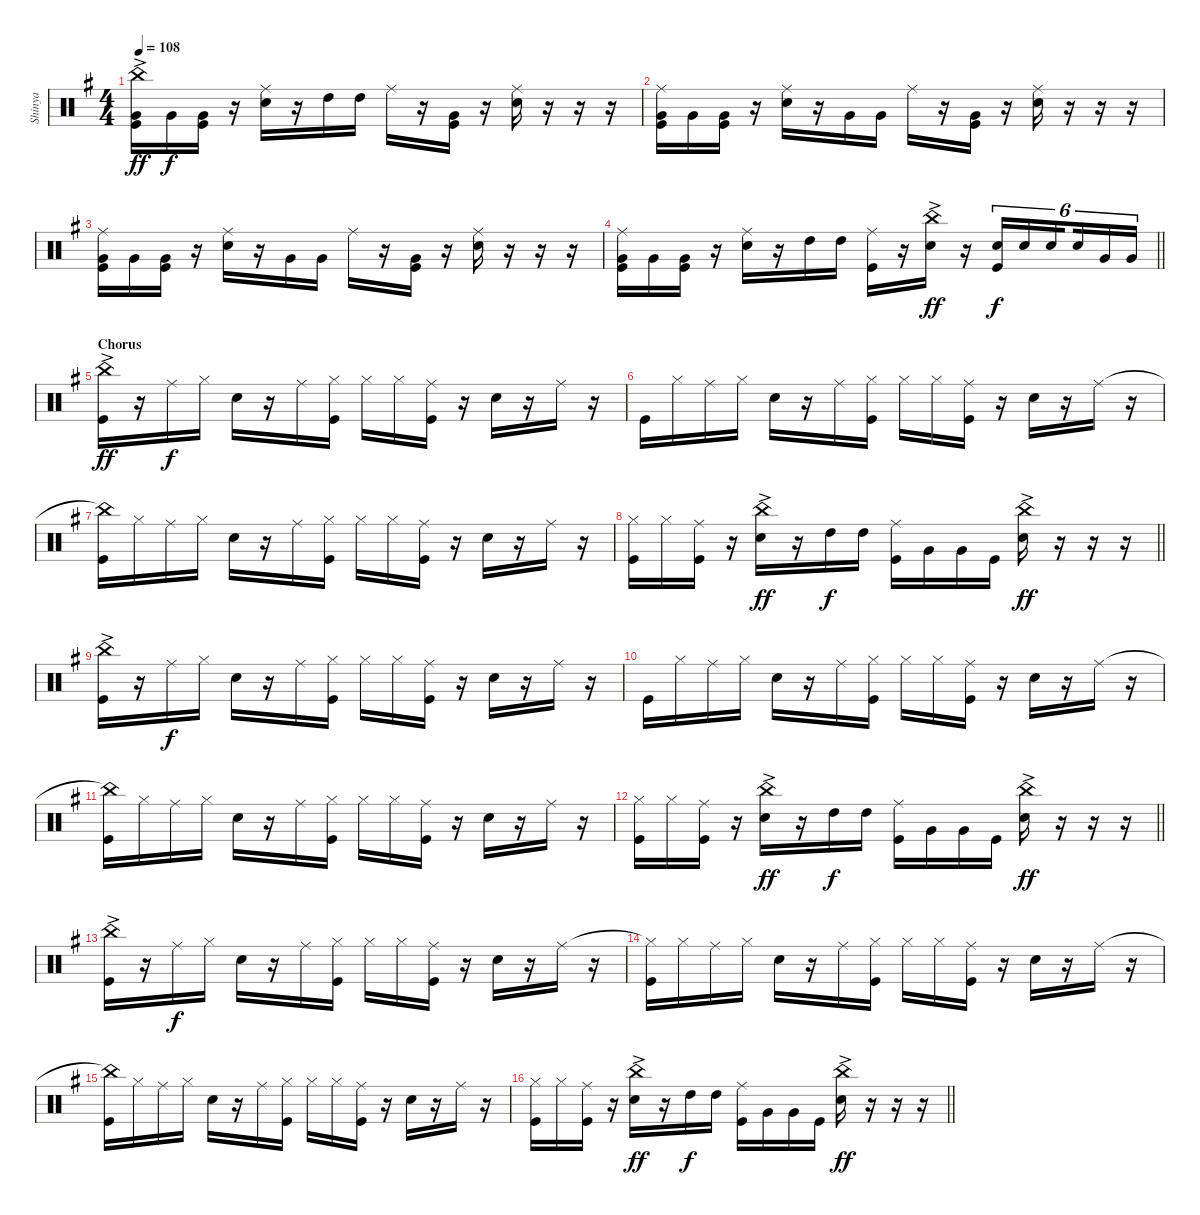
\track ("Shinya" "Shinya") {instrument percussion}
\staff {score}
\articulation defaults
\ts (4 4)
\tempo 108
\clef neutral
\ks g
("China (hit)"{ac} "Very Low Tom (hit)" "Kick (hit)").16{dy ff} "Very Low Tom (hit)".16{dy f} ("Very Low Tom (hit)" "Kick (hit)").16 r.16 ("Ride (middle)" "Electric Snare (hit)").16 r.16 "High Tom (hit)".16 "High Tom (hit)".16 "Ride (middle)".16 r.16 ("Very Low Tom (hit)" "Kick (hit)").16 r.16 ("Ride (middle)" "Electric Snare (hit)").16 r.16 r.16 r.16 |
("Ride (middle)" "Very Low Tom (hit)" "Kick (hit)").16 "Very Low Tom (hit)".16 ("Very Low Tom (hit)" "Kick (hit)").16 r.16 ("Ride (middle)" "Electric Snare (hit)").16 r.16 "Very Low Tom (hit)".16 "Very Low Tom (hit)".16 "Ride (middle)".16 r.16 ("Very Low Tom (hit)" "Kick (hit)").16 r.16 ("Ride (middle)" "Electric Snare (hit)").16 r.16 r.16 r.16 |
("Ride (middle)" "Very Low Tom (hit)" "Kick (hit)").16 "Very Low Tom (hit)".16 ("Very Low Tom (hit)" "Kick (hit)").16 r.16 ("Ride (middle)" "Electric Snare (hit)").16 r.16 "Very Low Tom (hit)".16 "Very Low Tom (hit)".16 "Ride (middle)".16 r.16 ("Very Low Tom (hit)" "Kick (hit)").16 r.16 ("Ride (middle)" "Electric Snare (hit)").16 r.16 r.16 r.16 |
\barLineRight lightlight
("Ride (middle)" "Very Low Tom (hit)" "Kick (hit)").16 "Very Low Tom (hit)".16 ("Very Low Tom (hit)" "Kick (hit)").16 r.16 ("Ride (middle)" "Electric Snare (hit)").16 r.16 "High Tom (hit)".16 "High Tom (hit)".16 ("Ride (middle)" "Kick (hit)").16 r.16 ("China (hit)"{ac} "Electric Snare (hit)").16{dy ff} r.16 ("Electric Snare (hit)" "Kick (hit)").16{tu (6 4) dy f} "Electric Snare (hit)".16{tu (6 4)} "Electric Snare (hit)".16{tu (6 4) beam splitsecondary} "Electric Snare (hit)".16{tu (6 4)} "Very Low Tom (hit)".16{tu (6 4)} "Very Low Tom (hit)".16{tu (6 4)} |
\section ("" "Chorus")
("China (hit)"{ac} "Kick (hit)").16{dy ff} r.16 "Ride (middle)".16{dy f} "Hi-Hat (closed)".16 "Electric Snare (hit)".16 r.16 "Ride (middle)".16 ("Hi-Hat (closed)" "Kick (hit)").16 "Hi-Hat (closed)".16 "Hi-Hat (closed)".16 ("Ride (middle)" "Kick (hit)").16 r.16 "Electric Snare (hit)".16 r.16 "Ride (middle)".16 r.16 |
"Kick (hit)".16 "Hi-Hat (closed)".16 "Ride (middle)".16 "Hi-Hat (closed)".16 "Electric Snare (hit)".16 r.16 "Ride (middle)".16 ("Hi-Hat (closed)" "Kick (hit)").16 "Hi-Hat (closed)".16 "Hi-Hat (closed)".16 ("Ride (middle)" "Kick (hit)").16 r.16 "Electric Snare (hit)".16 r.16 "Ride (middle)".16 r.16 |
("China (hit)"{t} "Kick (hit)").16 "Hi-Hat (closed)".16 "Ride (middle)".16 "Hi-Hat (closed)".16 "Electric Snare (hit)".16 r.16 "Ride (middle)".16 ("Hi-Hat (closed)" "Kick (hit)").16 "Hi-Hat (closed)".16 "Hi-Hat (closed)".16 ("Ride (middle)" "Kick (hit)").16 r.16 "Electric Snare (hit)".16 r.16 "Ride (middle)".16 r.16 |
\barLineRight lightlight
("Hi-Hat (closed)" "Kick (hit)").16 "Hi-Hat (closed)".16 ("Ride (middle)" "Kick (hit)").16 r.16 ("China (hit)"{ac} "Electric Snare (hit)").16{dy ff} r.16 "High Tom (hit)".16{dy f} "High Tom (hit)".16 ("Ride (middle)" "Kick (hit)").16 "Very Low Tom (hit)".16 "Very Low Tom (hit)".16 "Kick (hit)".16 ("China (hit)"{ac} "Electric Snare (hit)").16{dy ff} r.16 r.16 r.16 |
("China (hit)"{ac} "Kick (hit)").16 r.16 "Ride (middle)".16{dy f} "Hi-Hat (closed)".16 "Electric Snare (hit)".16 r.16 "Ride (middle)".16 ("Hi-Hat (closed)" "Kick (hit)").16 "Hi-Hat (closed)".16 "Hi-Hat (closed)".16 ("Ride (middle)" "Kick (hit)").16 r.16 "Electric Snare (hit)".16 r.16 "Ride (middle)".16 r.16 |
"Kick (hit)".16 "Hi-Hat (closed)".16 "Ride (middle)".16 "Hi-Hat (closed)".16 "Electric Snare (hit)".16 r.16 "Ride (middle)".16 ("Hi-Hat (closed)" "Kick (hit)").16 "Hi-Hat (closed)".16 "Hi-Hat (closed)".16 ("Ride (middle)" "Kick (hit)").16 r.16 "Electric Snare (hit)".16 r.16 "Ride (middle)".16 r.16 |
("China (hit)"{t} "Kick (hit)").16 "Hi-Hat (closed)".16 "Ride (middle)".16 "Hi-Hat (closed)".16 "Electric Snare (hit)".16 r.16 "Ride (middle)".16 ("Hi-Hat (closed)" "Kick (hit)").16 "Hi-Hat (closed)".16 "Hi-Hat (closed)".16 ("Ride (middle)" "Kick (hit)").16 r.16 "Electric Snare (hit)".16 r.16 "Ride (middle)".16 r.16 |
\barLineRight lightlight
("Hi-Hat (closed)" "Kick (hit)").16 "Hi-Hat (closed)".16 ("Ride (middle)" "Kick (hit)").16 r.16 ("China (hit)"{ac} "Electric Snare (hit)").16{dy ff} r.16 "High Tom (hit)".16{dy f} "High Tom (hit)".16 ("Ride (middle)" "Kick (hit)").16 "Very Low Tom (hit)".16 "Very Low Tom (hit)".16 "Kick (hit)".16 ("China (hit)"{ac} "Electric Snare (hit)").16{dy ff} r.16 r.16 r.16 |
\section ("" "")
("China (hit)"{ac} "Kick (hit)").16 r.16 "Ride (middle)".16{dy f} "Hi-Hat (closed)".16 "Electric Snare (hit)".16 r.16 "Ride (middle)".16 ("Hi-Hat (closed)" "Kick (hit)").16 "Hi-Hat (closed)".16 "Hi-Hat (closed)".16 ("Ride (middle)" "Kick (hit)").16 r.16 "Electric Snare (hit)".16 r.16 "Ride (middle)".16 r.16 |
("Hi-Hat (closed)"{t} "Kick (hit)").16 "Hi-Hat (closed)".16 "Ride (middle)".16 "Hi-Hat (closed)".16 "Electric Snare (hit)".16 r.16 "Ride (middle)".16 ("Hi-Hat (closed)" "Kick (hit)").16 "Hi-Hat (closed)".16 "Hi-Hat (closed)".16 ("Ride (middle)" "Kick (hit)").16 r.16 "Electric Snare (hit)".16 r.16 "Ride (middle)".16 r.16 |
("China (hit)"{t} "Kick (hit)").16 "Hi-Hat (closed)".16 "Ride (middle)".16 "Hi-Hat (closed)".16 "Electric Snare (hit)".16 r.16 "Ride (middle)".16 ("Hi-Hat (closed)" "Kick (hit)").16 "Hi-Hat (closed)".16 "Hi-Hat (closed)".16 ("Ride (middle)" "Kick (hit)").16 r.16 "Electric Snare (hit)".16 r.16 "Ride (middle)".16 r.16 |
\barLineRight lightlight
("Hi-Hat (closed)" "Kick (hit)").16 "Hi-Hat (closed)".16 ("Ride (middle)" "Kick (hit)").16 r.16 ("China (hit)"{ac} "Electric Snare (hit)").16{dy ff} r.16 "High Tom (hit)".16{dy f} "High Tom (hit)".16 ("Ride (middle)" "Kick (hit)").16 "Very Low Tom (hit)".16 "Very Low Tom (hit)".16 "Kick (hit)".16 ("China (hit)"{ac} "Electric Snare (hit)").16{dy ff} r.16 r.16 r.16
